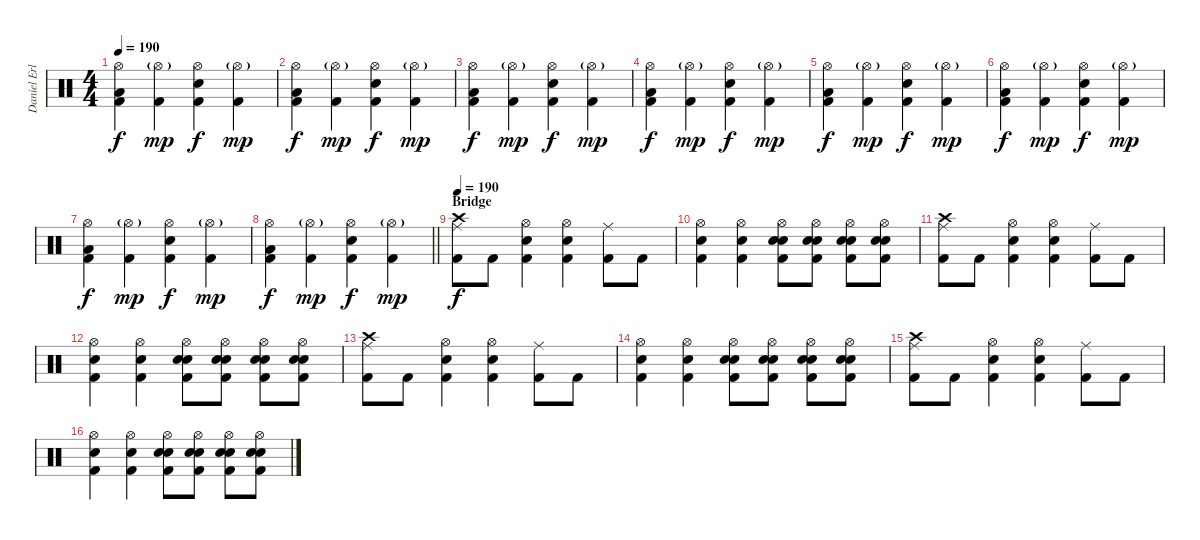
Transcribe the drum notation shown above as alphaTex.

\track ("Daniel Erlandsson" "Daniel Erl") {instrument percussion}
\staff {score}
\articulation defaults
\ts (4 4)
\tempo 190
\clef neutral
\ks c
("Hi-Hat (open)" "Low Floor Tom (hit)" "Kick (hit) 2").4{dy f} ("Hi-Hat (open)"{g} "Kick (hit) 2").4{dy mp} ("Hi-Hat (open)" "Snare (hit) 2" "Kick (hit) 2").4{dy f} ("Hi-Hat (open)"{g} "Kick (hit) 2").4{dy mp} |
("Hi-Hat (open)" "Low Floor Tom (hit)" "Kick (hit) 2").4{dy f} ("Hi-Hat (open)"{g} "Kick (hit) 2").4{dy mp} ("Hi-Hat (open)" "Snare (hit) 2" "Kick (hit) 2").4{dy f} ("Hi-Hat (open)"{g} "Kick (hit) 2").4{dy mp} |
("Hi-Hat (open)" "Low Floor Tom (hit)" "Kick (hit) 2").4{dy f} ("Hi-Hat (open)"{g} "Kick (hit) 2").4{dy mp} ("Hi-Hat (open)" "Snare (hit) 2" "Kick (hit) 2").4{dy f} ("Hi-Hat (open)"{g} "Kick (hit) 2").4{dy mp} |
("Hi-Hat (open)" "Low Floor Tom (hit)" "Kick (hit) 2").4{dy f} ("Hi-Hat (open)"{g} "Kick (hit) 2").4{dy mp} ("Hi-Hat (open)" "Snare (hit) 2" "Kick (hit) 2").4{dy f} ("Hi-Hat (open)"{g} "Kick (hit) 2").4{dy mp} |
("Hi-Hat (open)" "Low Floor Tom (hit)" "Kick (hit) 2").4{dy f} ("Hi-Hat (open)"{g} "Kick (hit) 2").4{dy mp} ("Hi-Hat (open)" "Snare (hit) 2" "Kick (hit) 2").4{dy f} ("Hi-Hat (open)"{g} "Kick (hit) 2").4{dy mp} |
("Hi-Hat (open)" "Low Floor Tom (hit)" "Kick (hit) 2").4{dy f} ("Hi-Hat (open)"{g} "Kick (hit) 2").4{dy mp} ("Hi-Hat (open)" "Snare (hit) 2" "Kick (hit) 2").4{dy f} ("Hi-Hat (open)"{g} "Kick (hit) 2").4{dy mp} |
("Hi-Hat (open)" "Low Floor Tom (hit)" "Kick (hit) 2").4{dy f} ("Hi-Hat (open)"{g} "Kick (hit) 2").4{dy mp} ("Hi-Hat (open)" "Snare (hit) 2" "Kick (hit) 2").4{dy f} ("Hi-Hat (open)"{g} "Kick (hit) 2").4{dy mp} |
\barLineRight lightlight
("Hi-Hat (open)" "Low Floor Tom (hit)" "Kick (hit) 2").4{dy f} ("Hi-Hat (open)"{g} "Kick (hit) 2").4{dy mp} ("Hi-Hat (open)" "Snare (hit) 2" "Kick (hit) 2").4{dy f} ("Hi-Hat (open)"{g} "Kick (hit) 2").4{dy mp} |
\section ("" "Bridge")
\tempo 190
("Crash high (hit)" "Ride (middle)" "Kick (hit) 2").8{dy f} "Kick (hit) 2".8 ("Hi-Hat (open)" "Snare (hit) 2" "Kick (hit) 2").4 ("Hi-Hat (open)" "Snare (hit) 2" "Kick (hit) 2").4 ("Ride (middle)" "Kick (hit) 2").8 "Kick (hit) 2".8 |
("Hi-Hat (open)" "Snare (hit) 2" "Kick (hit) 2").4 ("Hi-Hat (open)" "Snare (hit) 2" "Kick (hit) 2").4 ("Hi-Hat (open)" "Snare (hit) 2" "Electric Snare (hit)" "Kick (hit) 2").8 ("Hi-Hat (open)" "Snare (hit) 2" "Electric Snare (hit)" "Kick (hit) 2").8 ("Hi-Hat (open)" "Snare (hit) 2" "Electric Snare (hit)" "Kick (hit) 2").8 ("Hi-Hat (open)" "Snare (hit) 2" "Electric Snare (hit)" "Kick (hit) 2").8 |
("Crash high (hit)" "Ride (middle)" "Kick (hit) 2").8 "Kick (hit) 2".8 ("Hi-Hat (open)" "Snare (hit) 2" "Kick (hit) 2").4 ("Hi-Hat (open)" "Snare (hit) 2" "Kick (hit) 2").4 ("Ride (middle)" "Kick (hit) 2").8 "Kick (hit) 2".8 |
("Hi-Hat (open)" "Snare (hit) 2" "Kick (hit) 2").4 ("Hi-Hat (open)" "Snare (hit) 2" "Kick (hit) 2").4 ("Hi-Hat (open)" "Snare (hit) 2" "Electric Snare (hit)" "Kick (hit) 2").8 ("Hi-Hat (open)" "Snare (hit) 2" "Electric Snare (hit)" "Kick (hit) 2").8 ("Hi-Hat (open)" "Snare (hit) 2" "Electric Snare (hit)" "Kick (hit) 2").8 ("Hi-Hat (open)" "Snare (hit) 2" "Electric Snare (hit)" "Kick (hit) 2").8 |
("Crash high (hit)" "Ride (middle)" "Kick (hit) 2").8 "Kick (hit) 2".8 ("Hi-Hat (open)" "Snare (hit) 2" "Kick (hit) 2").4 ("Hi-Hat (open)" "Snare (hit) 2" "Kick (hit) 2").4 ("Ride (middle)" "Kick (hit) 2").8 "Kick (hit) 2".8 |
("Hi-Hat (open)" "Snare (hit) 2" "Kick (hit) 2").4 ("Hi-Hat (open)" "Snare (hit) 2" "Kick (hit) 2").4 ("Hi-Hat (open)" "Snare (hit) 2" "Electric Snare (hit)" "Kick (hit) 2").8 ("Hi-Hat (open)" "Snare (hit) 2" "Electric Snare (hit)" "Kick (hit) 2").8 ("Hi-Hat (open)" "Snare (hit) 2" "Electric Snare (hit)" "Kick (hit) 2").8 ("Hi-Hat (open)" "Snare (hit) 2" "Electric Snare (hit)" "Kick (hit) 2").8 |
("Crash high (hit)" "Ride (middle)" "Kick (hit) 2").8 "Kick (hit) 2".8 ("Hi-Hat (open)" "Snare (hit) 2" "Kick (hit) 2").4 ("Hi-Hat (open)" "Snare (hit) 2" "Kick (hit) 2").4 ("Ride (middle)" "Kick (hit) 2").8 "Kick (hit) 2".8 |
("Hi-Hat (open)" "Snare (hit) 2" "Kick (hit) 2").4 ("Hi-Hat (open)" "Snare (hit) 2" "Kick (hit) 2").4 ("Hi-Hat (open)" "Snare (hit) 2" "Electric Snare (hit)" "Kick (hit) 2").8 ("Hi-Hat (open)" "Snare (hit) 2" "Electric Snare (hit)" "Kick (hit) 2").8 ("Hi-Hat (open)" "Snare (hit) 2" "Electric Snare (hit)" "Kick (hit) 2").8 ("Hi-Hat (open)" "Snare (hit) 2" "Electric Snare (hit)" "Kick (hit) 2").8
